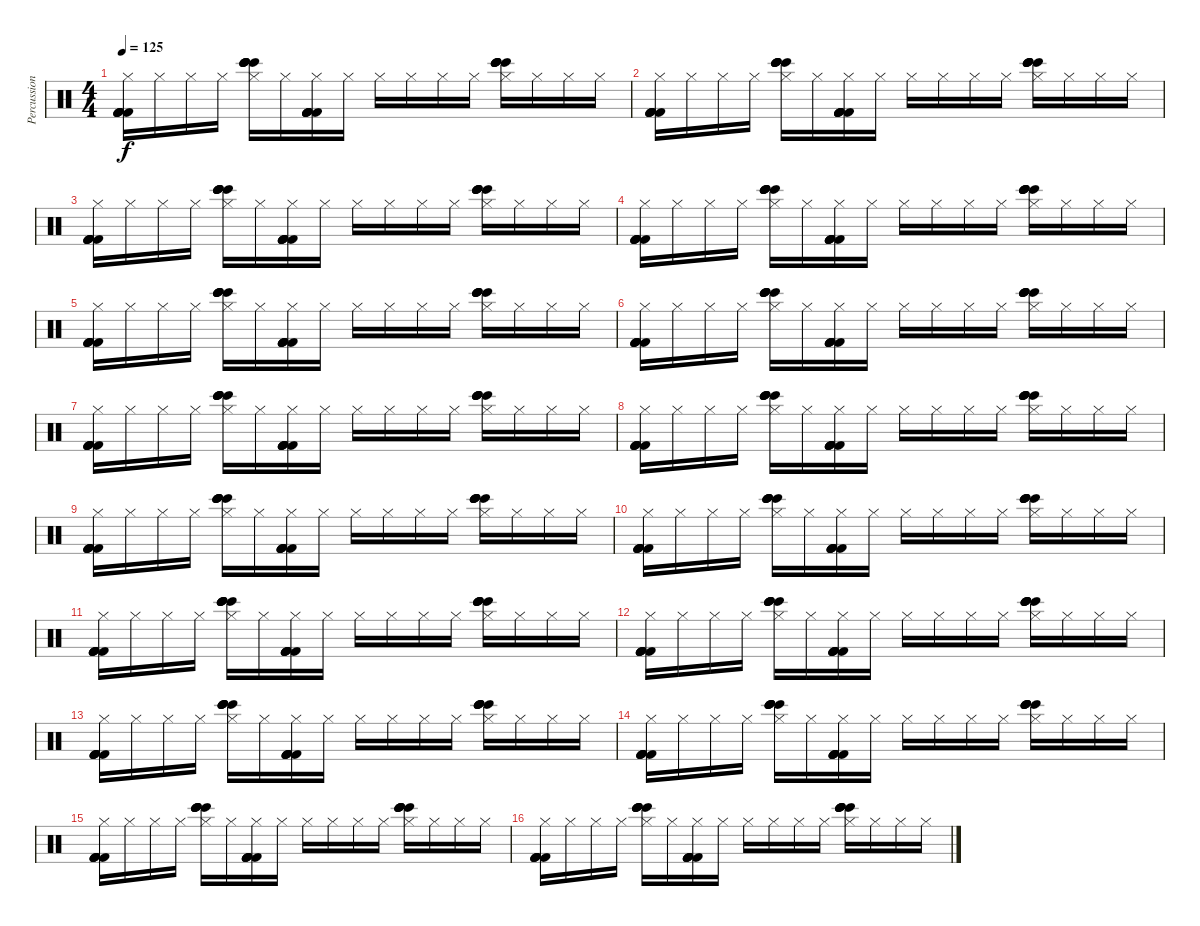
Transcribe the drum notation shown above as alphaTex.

\track ("Percussion" "Percussion") {instrument percussion}
\staff {score}
\articulation defaults
\ts (4 4)
\tempo 125
\clef neutral
\ks c
("Hi-Hat (closed)" "Kick (hit) 2" "Kick (hit) 2" "Kick (hit) 2" "Kick (hit) 2" "Kick (hit) 2").16{dy f} "Hi-Hat (closed)".16 "Hi-Hat (closed)".16 "Hi-Hat (closed)".16 ("Hi-Hat (closed)" "Bongo High (hit)" "Bongo High (hit)" "Bongo High (hit)" "Bongo High (hit)" "Bongo High (hit)").16 "Hi-Hat (closed)".16 ("Hi-Hat (closed)" "Kick (hit) 2" "Kick (hit) 2" "Kick (hit) 2" "Kick (hit) 2" "Kick (hit) 2").16 "Hi-Hat (closed)".16 "Hi-Hat (closed)".16 "Hi-Hat (closed)".16 "Hi-Hat (closed)".16 "Hi-Hat (closed)".16 ("Hi-Hat (closed)" "Bongo High (hit)" "Bongo High (hit)" "Bongo High (hit)" "Bongo High (hit)" "Bongo High (hit)").16 "Hi-Hat (closed)".16 "Hi-Hat (closed)".16 "Hi-Hat (closed)".16 |
("Hi-Hat (closed)" "Kick (hit) 2" "Kick (hit) 2" "Kick (hit) 2" "Kick (hit) 2" "Kick (hit) 2").16 "Hi-Hat (closed)".16 "Hi-Hat (closed)".16 "Hi-Hat (closed)".16 ("Hi-Hat (closed)" "Bongo High (hit)" "Bongo High (hit)" "Bongo High (hit)" "Bongo High (hit)" "Bongo High (hit)").16 "Hi-Hat (closed)".16 ("Hi-Hat (closed)" "Kick (hit) 2" "Kick (hit) 2" "Kick (hit) 2" "Kick (hit) 2" "Kick (hit) 2").16 "Hi-Hat (closed)".16 "Hi-Hat (closed)".16 "Hi-Hat (closed)".16 "Hi-Hat (closed)".16 "Hi-Hat (closed)".16 ("Hi-Hat (closed)" "Bongo High (hit)" "Bongo High (hit)" "Bongo High (hit)" "Bongo High (hit)" "Bongo High (hit)").16 "Hi-Hat (closed)".16 "Hi-Hat (closed)".16 "Hi-Hat (closed)".16 |
("Hi-Hat (closed)" "Kick (hit) 2" "Kick (hit) 2" "Kick (hit) 2" "Kick (hit) 2" "Kick (hit) 2").16 "Hi-Hat (closed)".16 "Hi-Hat (closed)".16 "Hi-Hat (closed)".16 ("Hi-Hat (closed)" "Bongo High (hit)" "Bongo High (hit)" "Bongo High (hit)" "Bongo High (hit)" "Bongo High (hit)").16 "Hi-Hat (closed)".16 ("Hi-Hat (closed)" "Kick (hit) 2" "Kick (hit) 2" "Kick (hit) 2" "Kick (hit) 2" "Kick (hit) 2").16 "Hi-Hat (closed)".16 "Hi-Hat (closed)".16 "Hi-Hat (closed)".16 "Hi-Hat (closed)".16 "Hi-Hat (closed)".16 ("Hi-Hat (closed)" "Bongo High (hit)" "Bongo High (hit)" "Bongo High (hit)" "Bongo High (hit)" "Bongo High (hit)").16 "Hi-Hat (closed)".16 "Hi-Hat (closed)".16 "Hi-Hat (closed)".16 |
("Hi-Hat (closed)" "Kick (hit) 2" "Kick (hit) 2" "Kick (hit) 2" "Kick (hit) 2" "Kick (hit) 2").16 "Hi-Hat (closed)".16 "Hi-Hat (closed)".16 "Hi-Hat (closed)".16 ("Hi-Hat (closed)" "Bongo High (hit)" "Bongo High (hit)" "Bongo High (hit)" "Bongo High (hit)" "Bongo High (hit)").16 "Hi-Hat (closed)".16 ("Hi-Hat (closed)" "Kick (hit) 2" "Kick (hit) 2" "Kick (hit) 2" "Kick (hit) 2" "Kick (hit) 2").16 "Hi-Hat (closed)".16 "Hi-Hat (closed)".16 "Hi-Hat (closed)".16 "Hi-Hat (closed)".16 "Hi-Hat (closed)".16 ("Hi-Hat (closed)" "Bongo High (hit)" "Bongo High (hit)" "Bongo High (hit)" "Bongo High (hit)" "Bongo High (hit)").16 "Hi-Hat (closed)".16 "Hi-Hat (closed)".16 "Hi-Hat (closed)".16 |
("Hi-Hat (closed)" "Kick (hit) 2" "Kick (hit) 2" "Kick (hit) 2" "Kick (hit) 2" "Kick (hit) 2").16 "Hi-Hat (closed)".16 "Hi-Hat (closed)".16 "Hi-Hat (closed)".16 ("Hi-Hat (closed)" "Bongo High (hit)" "Bongo High (hit)" "Bongo High (hit)" "Bongo High (hit)" "Bongo High (hit)").16 "Hi-Hat (closed)".16 ("Hi-Hat (closed)" "Kick (hit) 2" "Kick (hit) 2" "Kick (hit) 2" "Kick (hit) 2" "Kick (hit) 2").16 "Hi-Hat (closed)".16 "Hi-Hat (closed)".16 "Hi-Hat (closed)".16 "Hi-Hat (closed)".16 "Hi-Hat (closed)".16 ("Hi-Hat (closed)" "Bongo High (hit)" "Bongo High (hit)" "Bongo High (hit)" "Bongo High (hit)" "Bongo High (hit)").16 "Hi-Hat (closed)".16 "Hi-Hat (closed)".16 "Hi-Hat (closed)".16 |
("Hi-Hat (closed)" "Kick (hit) 2" "Kick (hit) 2" "Kick (hit) 2" "Kick (hit) 2" "Kick (hit) 2").16 "Hi-Hat (closed)".16 "Hi-Hat (closed)".16 "Hi-Hat (closed)".16 ("Hi-Hat (closed)" "Bongo High (hit)" "Bongo High (hit)" "Bongo High (hit)" "Bongo High (hit)" "Bongo High (hit)").16 "Hi-Hat (closed)".16 ("Hi-Hat (closed)" "Kick (hit) 2" "Kick (hit) 2" "Kick (hit) 2" "Kick (hit) 2" "Kick (hit) 2").16 "Hi-Hat (closed)".16 "Hi-Hat (closed)".16 "Hi-Hat (closed)".16 "Hi-Hat (closed)".16 "Hi-Hat (closed)".16 ("Hi-Hat (closed)" "Bongo High (hit)" "Bongo High (hit)" "Bongo High (hit)" "Bongo High (hit)" "Bongo High (hit)").16 "Hi-Hat (closed)".16 "Hi-Hat (closed)".16 "Hi-Hat (closed)".16 |
("Hi-Hat (closed)" "Kick (hit) 2" "Kick (hit) 2" "Kick (hit) 2" "Kick (hit) 2" "Kick (hit) 2").16 "Hi-Hat (closed)".16 "Hi-Hat (closed)".16 "Hi-Hat (closed)".16 ("Hi-Hat (closed)" "Bongo High (hit)" "Bongo High (hit)" "Bongo High (hit)" "Bongo High (hit)" "Bongo High (hit)").16 "Hi-Hat (closed)".16 ("Hi-Hat (closed)" "Kick (hit) 2" "Kick (hit) 2" "Kick (hit) 2" "Kick (hit) 2" "Kick (hit) 2").16 "Hi-Hat (closed)".16 "Hi-Hat (closed)".16 "Hi-Hat (closed)".16 "Hi-Hat (closed)".16 "Hi-Hat (closed)".16 ("Hi-Hat (closed)" "Bongo High (hit)" "Bongo High (hit)" "Bongo High (hit)" "Bongo High (hit)" "Bongo High (hit)").16 "Hi-Hat (closed)".16 "Hi-Hat (closed)".16 "Hi-Hat (closed)".16 |
("Hi-Hat (closed)" "Kick (hit) 2" "Kick (hit) 2" "Kick (hit) 2" "Kick (hit) 2" "Kick (hit) 2").16 "Hi-Hat (closed)".16 "Hi-Hat (closed)".16 "Hi-Hat (closed)".16 ("Hi-Hat (closed)" "Bongo High (hit)" "Bongo High (hit)" "Bongo High (hit)" "Bongo High (hit)" "Bongo High (hit)").16 "Hi-Hat (closed)".16 ("Hi-Hat (closed)" "Kick (hit) 2" "Kick (hit) 2" "Kick (hit) 2" "Kick (hit) 2" "Kick (hit) 2").16 "Hi-Hat (closed)".16 "Hi-Hat (closed)".16 "Hi-Hat (closed)".16 "Hi-Hat (closed)".16 "Hi-Hat (closed)".16 ("Hi-Hat (closed)" "Bongo High (hit)" "Bongo High (hit)" "Bongo High (hit)" "Bongo High (hit)" "Bongo High (hit)").16 "Hi-Hat (closed)".16 "Hi-Hat (closed)".16 "Hi-Hat (closed)".16 |
("Hi-Hat (closed)" "Kick (hit) 2" "Kick (hit) 2" "Kick (hit) 2" "Kick (hit) 2" "Kick (hit) 2").16 "Hi-Hat (closed)".16 "Hi-Hat (closed)".16 "Hi-Hat (closed)".16 ("Hi-Hat (closed)" "Bongo High (hit)" "Bongo High (hit)" "Bongo High (hit)" "Bongo High (hit)" "Bongo High (hit)").16 "Hi-Hat (closed)".16 ("Hi-Hat (closed)" "Kick (hit) 2" "Kick (hit) 2" "Kick (hit) 2" "Kick (hit) 2" "Kick (hit) 2").16 "Hi-Hat (closed)".16 "Hi-Hat (closed)".16 "Hi-Hat (closed)".16 "Hi-Hat (closed)".16 "Hi-Hat (closed)".16 ("Hi-Hat (closed)" "Bongo High (hit)" "Bongo High (hit)" "Bongo High (hit)" "Bongo High (hit)" "Bongo High (hit)").16 "Hi-Hat (closed)".16 "Hi-Hat (closed)".16 "Hi-Hat (closed)".16 |
("Hi-Hat (closed)" "Kick (hit) 2" "Kick (hit) 2" "Kick (hit) 2" "Kick (hit) 2" "Kick (hit) 2").16 "Hi-Hat (closed)".16 "Hi-Hat (closed)".16 "Hi-Hat (closed)".16 ("Hi-Hat (closed)" "Bongo High (hit)" "Bongo High (hit)" "Bongo High (hit)" "Bongo High (hit)" "Bongo High (hit)").16 "Hi-Hat (closed)".16 ("Hi-Hat (closed)" "Kick (hit) 2" "Kick (hit) 2" "Kick (hit) 2" "Kick (hit) 2" "Kick (hit) 2").16 "Hi-Hat (closed)".16 "Hi-Hat (closed)".16 "Hi-Hat (closed)".16 "Hi-Hat (closed)".16 "Hi-Hat (closed)".16 ("Hi-Hat (closed)" "Bongo High (hit)" "Bongo High (hit)" "Bongo High (hit)" "Bongo High (hit)" "Bongo High (hit)").16 "Hi-Hat (closed)".16 "Hi-Hat (closed)".16 "Hi-Hat (closed)".16 |
("Hi-Hat (closed)" "Kick (hit) 2" "Kick (hit) 2" "Kick (hit) 2" "Kick (hit) 2" "Kick (hit) 2").16 "Hi-Hat (closed)".16 "Hi-Hat (closed)".16 "Hi-Hat (closed)".16 ("Hi-Hat (closed)" "Bongo High (hit)" "Bongo High (hit)" "Bongo High (hit)" "Bongo High (hit)" "Bongo High (hit)").16 "Hi-Hat (closed)".16 ("Hi-Hat (closed)" "Kick (hit) 2" "Kick (hit) 2" "Kick (hit) 2" "Kick (hit) 2" "Kick (hit) 2").16 "Hi-Hat (closed)".16 "Hi-Hat (closed)".16 "Hi-Hat (closed)".16 "Hi-Hat (closed)".16 "Hi-Hat (closed)".16 ("Hi-Hat (closed)" "Bongo High (hit)" "Bongo High (hit)" "Bongo High (hit)" "Bongo High (hit)" "Bongo High (hit)").16 "Hi-Hat (closed)".16 "Hi-Hat (closed)".16 "Hi-Hat (closed)".16 |
("Hi-Hat (closed)" "Kick (hit) 2" "Kick (hit) 2" "Kick (hit) 2" "Kick (hit) 2" "Kick (hit) 2").16 "Hi-Hat (closed)".16 "Hi-Hat (closed)".16 "Hi-Hat (closed)".16 ("Hi-Hat (closed)" "Bongo High (hit)" "Bongo High (hit)" "Bongo High (hit)" "Bongo High (hit)" "Bongo High (hit)").16 "Hi-Hat (closed)".16 ("Hi-Hat (closed)" "Kick (hit) 2" "Kick (hit) 2" "Kick (hit) 2" "Kick (hit) 2" "Kick (hit) 2").16 "Hi-Hat (closed)".16 "Hi-Hat (closed)".16 "Hi-Hat (closed)".16 "Hi-Hat (closed)".16 "Hi-Hat (closed)".16 ("Hi-Hat (closed)" "Bongo High (hit)" "Bongo High (hit)" "Bongo High (hit)" "Bongo High (hit)" "Bongo High (hit)").16 "Hi-Hat (closed)".16 "Hi-Hat (closed)".16 "Hi-Hat (closed)".16 |
("Hi-Hat (closed)" "Kick (hit) 2" "Kick (hit) 2" "Kick (hit) 2" "Kick (hit) 2" "Kick (hit) 2").16 "Hi-Hat (closed)".16 "Hi-Hat (closed)".16 "Hi-Hat (closed)".16 ("Hi-Hat (closed)" "Bongo High (hit)" "Bongo High (hit)" "Bongo High (hit)" "Bongo High (hit)" "Bongo High (hit)").16 "Hi-Hat (closed)".16 ("Hi-Hat (closed)" "Kick (hit) 2" "Kick (hit) 2" "Kick (hit) 2" "Kick (hit) 2" "Kick (hit) 2").16 "Hi-Hat (closed)".16 "Hi-Hat (closed)".16 "Hi-Hat (closed)".16 "Hi-Hat (closed)".16 "Hi-Hat (closed)".16 ("Hi-Hat (closed)" "Bongo High (hit)" "Bongo High (hit)" "Bongo High (hit)" "Bongo High (hit)" "Bongo High (hit)").16 "Hi-Hat (closed)".16 "Hi-Hat (closed)".16 "Hi-Hat (closed)".16 |
("Hi-Hat (closed)" "Kick (hit) 2" "Kick (hit) 2" "Kick (hit) 2" "Kick (hit) 2" "Kick (hit) 2").16 "Hi-Hat (closed)".16 "Hi-Hat (closed)".16 "Hi-Hat (closed)".16 ("Hi-Hat (closed)" "Bongo High (hit)" "Bongo High (hit)" "Bongo High (hit)" "Bongo High (hit)" "Bongo High (hit)").16 "Hi-Hat (closed)".16 ("Hi-Hat (closed)" "Kick (hit) 2" "Kick (hit) 2" "Kick (hit) 2" "Kick (hit) 2" "Kick (hit) 2").16 "Hi-Hat (closed)".16 "Hi-Hat (closed)".16 "Hi-Hat (closed)".16 "Hi-Hat (closed)".16 "Hi-Hat (closed)".16 ("Hi-Hat (closed)" "Bongo High (hit)" "Bongo High (hit)" "Bongo High (hit)" "Bongo High (hit)" "Bongo High (hit)").16 "Hi-Hat (closed)".16 "Hi-Hat (closed)".16 "Hi-Hat (closed)".16 |
("Hi-Hat (closed)" "Kick (hit) 2" "Kick (hit) 2" "Kick (hit) 2" "Kick (hit) 2" "Kick (hit) 2").16 "Hi-Hat (closed)".16 "Hi-Hat (closed)".16 "Hi-Hat (closed)".16 ("Hi-Hat (closed)" "Bongo High (hit)" "Bongo High (hit)" "Bongo High (hit)" "Bongo High (hit)" "Bongo High (hit)").16 "Hi-Hat (closed)".16 ("Hi-Hat (closed)" "Kick (hit) 2" "Kick (hit) 2" "Kick (hit) 2" "Kick (hit) 2" "Kick (hit) 2").16 "Hi-Hat (closed)".16 "Hi-Hat (closed)".16 "Hi-Hat (closed)".16 "Hi-Hat (closed)".16 "Hi-Hat (closed)".16 ("Hi-Hat (closed)" "Bongo High (hit)" "Bongo High (hit)" "Bongo High (hit)" "Bongo High (hit)" "Bongo High (hit)").16 "Hi-Hat (closed)".16 "Hi-Hat (closed)".16 "Hi-Hat (closed)".16 |
("Hi-Hat (closed)" "Kick (hit) 2" "Kick (hit) 2" "Kick (hit) 2" "Kick (hit) 2" "Kick (hit) 2").16 "Hi-Hat (closed)".16 "Hi-Hat (closed)".16 "Hi-Hat (closed)".16 ("Hi-Hat (closed)" "Bongo High (hit)" "Bongo High (hit)" "Bongo High (hit)" "Bongo High (hit)" "Bongo High (hit)").16 "Hi-Hat (closed)".16 ("Hi-Hat (closed)" "Kick (hit) 2" "Kick (hit) 2" "Kick (hit) 2" "Kick (hit) 2" "Kick (hit) 2").16 "Hi-Hat (closed)".16 "Hi-Hat (closed)".16 "Hi-Hat (closed)".16 "Hi-Hat (closed)".16 "Hi-Hat (closed)".16 ("Hi-Hat (closed)" "Bongo High (hit)" "Bongo High (hit)" "Bongo High (hit)" "Bongo High (hit)" "Bongo High (hit)").16 "Hi-Hat (closed)".16 "Hi-Hat (closed)".16 "Hi-Hat (closed)".16
